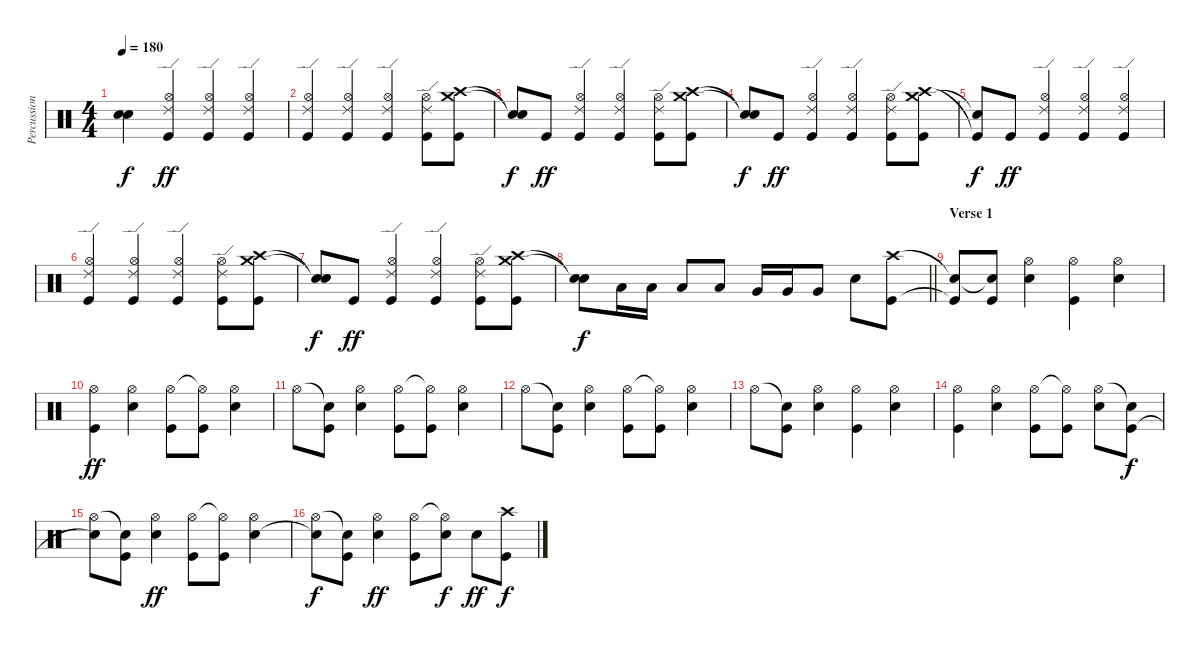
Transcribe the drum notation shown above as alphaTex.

\track ("Percussion" "Percussion") {instrument percussion}
\staff {score}
\articulation defaults
\ts (4 4)
\tempo 180
\clef neutral
\ks c
("Snare (hit)"{t} "Snare (hit)"{t}).4{dy f} ("Ride (edge) 2" "Hi-Hat (open)" "Kick (hit)").4{dy ff} ("Ride (edge) 2" "Hi-Hat (open)" "Kick (hit)").4 ("Ride (edge) 2" "Hi-Hat (open)" "Kick (hit)").4 |
("Ride (edge) 2" "Hi-Hat (open)" "Kick (hit)").4 ("Ride (edge) 2" "Hi-Hat (open)" "Kick (hit)").4 ("Ride (edge) 2" "Hi-Hat (open)" "Kick (hit)").4 ("Ride (edge) 2" "Hi-Hat (open)" "Kick (hit)").8 ("Crash medium (hit)" "Crash high (hit)" "Kick (hit)").8 |
("Snare (hit)"{t} "Snare (hit)"{t}).8{dy f} "Kick (hit)".8{dy ff} ("Ride (edge) 2" "Hi-Hat (open)" "Kick (hit)").4 ("Ride (edge) 2" "Hi-Hat (open)" "Kick (hit)").4 ("Ride (edge) 2" "Hi-Hat (open)" "Kick (hit)").8 ("Crash medium (hit)" "Crash high (hit)" "Kick (hit)").8 |
("Snare (hit)"{t} "Snare (hit)"{t}).8{dy f} "Kick (hit)".8{dy ff} ("Ride (edge) 2" "Hi-Hat (open)" "Kick (hit)").4 ("Ride (edge) 2" "Hi-Hat (open)" "Kick (hit)").4 ("Ride (edge) 2" "Hi-Hat (open)" "Kick (hit)").8 ("Crash medium (hit)" "Crash high (hit)" "Kick (hit)").8 |
("Snare (hit)"{t} "Kick (hit)"{t}).8{dy f} "Kick (hit)".8{dy ff} ("Ride (edge) 2" "Hi-Hat (open)" "Kick (hit)").4 ("Ride (edge) 2" "Hi-Hat (open)" "Kick (hit)").4 ("Ride (edge) 2" "Hi-Hat (open)" "Kick (hit)").4 |
("Ride (edge) 2" "Hi-Hat (open)" "Kick (hit)").4 ("Ride (edge) 2" "Hi-Hat (open)" "Kick (hit)").4 ("Ride (edge) 2" "Hi-Hat (open)" "Kick (hit)").4 ("Ride (edge) 2" "Hi-Hat (open)" "Kick (hit)").8 ("Crash medium (hit)" "Crash high (hit)" "Kick (hit)").8 |
("Snare (hit)"{t} "Snare (hit)"{t}).8{dy f} "Kick (hit)".8{dy ff} ("Ride (edge) 2" "Hi-Hat (open)" "Kick (hit)").4 ("Ride (edge) 2" "Hi-Hat (open)" "Kick (hit)").4 ("Ride (edge) 2" "Hi-Hat (open)" "Kick (hit)").8 ("Crash medium (hit)" "Crash high (hit)" "Kick (hit)").8 |
\barLineRight lightlight
("Snare (hit)"{t} "Snare (hit)"{t}).8{dy f} "Low Tom (hit)".16 "Low Tom (hit)".16 "Low Tom (hit)".8 "Low Tom (hit)".8 "Very Low Tom (hit)".16 "Very Low Tom (hit)".16 "Very Low Tom (hit)".8 "Snare (hit) 2".8 ("Crash high (hit)" "Kick (hit)").8 |
\section ("" "Verse 1")
("Snare (hit)"{t} "Kick (hit)"{t}).8 ("Snare (hit)"{t} "Kick (hit)").8 ("Hi-Hat (open)" "Snare (hit) 2").4 ("Hi-Hat (open)" "Kick (hit)").4 ("Hi-Hat (open)" "Snare (hit) 2").4 |
("Hi-Hat (open)" "Kick (hit)").4{dy ff} ("Hi-Hat (open)" "Snare (hit) 2").4 ("Hi-Hat (open)" "Kick (hit)").8 ("Hi-Hat (open)"{t} "Kick (hit)").8 ("Hi-Hat (open)" "Snare (hit) 2").4 |
"Hi-Hat (open)".8 ("Snare (hit)"{t} "Kick (hit)").8 ("Hi-Hat (open)" "Snare (hit) 2").4 ("Hi-Hat (open)" "Kick (hit)").8 ("Hi-Hat (open)"{t} "Kick (hit)").8 ("Hi-Hat (open)" "Snare (hit) 2").4 |
"Hi-Hat (open)".8 ("Snare (hit)"{t} "Kick (hit)").8 ("Hi-Hat (open)" "Snare (hit) 2").4 ("Hi-Hat (open)" "Kick (hit)").8 ("Hi-Hat (open)"{t} "Kick (hit)").8 ("Hi-Hat (open)" "Snare (hit) 2").4 |
"Hi-Hat (open)".8 ("Snare (hit)"{t} "Kick (hit)").8 ("Hi-Hat (open)" "Snare (hit) 2").4 ("Hi-Hat (open)" "Kick (hit)").4 ("Hi-Hat (open)" "Snare (hit) 2").4 |
("Hi-Hat (open)" "Kick (hit)").4 ("Hi-Hat (open)" "Snare (hit) 2").4 ("Hi-Hat (open)" "Kick (hit)").8 ("Hi-Hat (open)"{t} "Kick (hit)").8 ("Hi-Hat (open)" "Snare (hit) 2").8 ("Snare (hit)"{t} "Kick (hit)").8{dy f} |
("Hi-Hat (open)" "Snare (hit)"{t}).8 ("Snare (hit)"{t} "Kick (hit)").8 ("Hi-Hat (open)" "Snare (hit) 2").4{dy ff} ("Hi-Hat (open)" "Kick (hit)").8 ("Hi-Hat (open)"{t} "Kick (hit)").8 ("Hi-Hat (open)" "Snare (hit) 2").4 |
("Hi-Hat (open)" "Snare (hit)"{t}).8{dy f} ("Snare (hit)"{t} "Kick (hit)").8 ("Hi-Hat (open)" "Snare (hit) 2").4{dy ff} ("Hi-Hat (open)" "Kick (hit)").8 ("Hi-Hat (open)"{t} "Snare (hit) 2").8{dy f} "Snare (hit) 2".8{dy ff} ("Crash high (hit)" "Kick (hit)").8{dy f}
